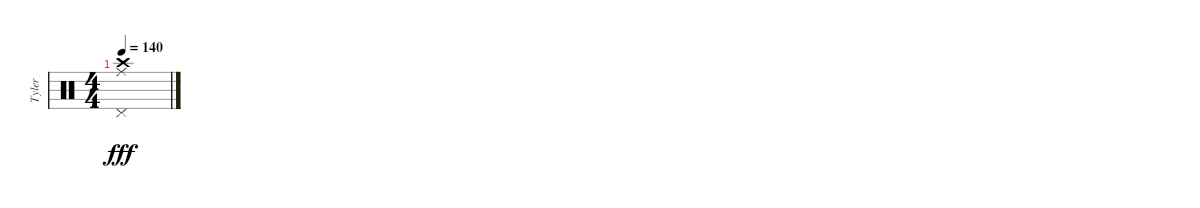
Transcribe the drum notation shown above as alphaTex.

\track ("Tyler" "Tyler") {instrument percussion}
\staff {score}
\articulation defaults
\ts (4 4)
\tempo 140
\clef neutral
\ks c
("Pedal Hi-Hat (hit)" "Ride (middle)" "Crash high (hit)").1{dy fff}
